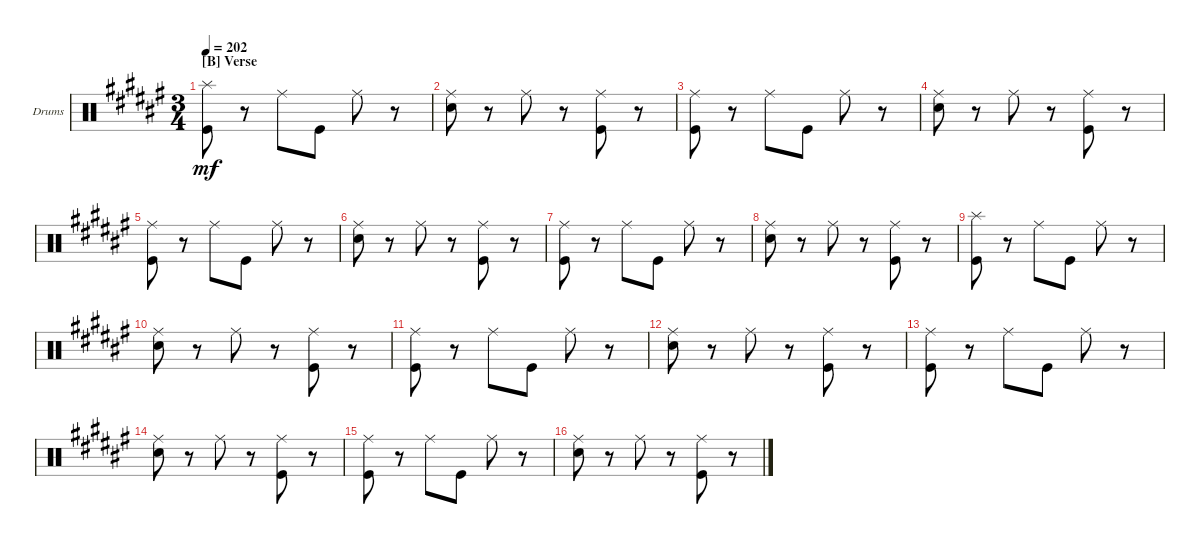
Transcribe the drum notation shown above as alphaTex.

\defaultSystemsLayout 4
\bracketExtendMode groupsimilarinstruments
\firstSystemTrackNameOrientation horizontal
\otherSystemsTrackNameOrientation horizontal
\track ("Drumkit" "Drums") {instrument percussion}
\staff {score}
\articulation defaults
\ts (3 4)
\section ("B" "Verse")
\tempo 202
\clef neutral
\ks f#
("Kick (hit)" "Splash (hit)").8{dy mf} r.8 "Ride (middle)".8 "Kick (hit)".8 "Ride (middle)".8 r.8 |
("Snare (hit) 2" "Ride (middle)").8 r.8 "Ride (middle)".8 r.8 ("Kick (hit)" "Ride (middle)").8 r.8 |
("Kick (hit)" "Ride (middle)").8 r.8 "Ride (middle)".8 "Kick (hit)".8 "Ride (middle)".8 r.8 |
("Snare (hit) 2" "Ride (middle)").8 r.8 "Ride (middle)".8 r.8 ("Kick (hit)" "Ride (middle)").8 r.8 |
("Kick (hit)" "Ride (middle)").8 r.8 "Ride (middle)".8 "Kick (hit)".8 "Ride (middle)".8 r.8 |
("Snare (hit) 2" "Ride (middle)").8 r.8 "Ride (middle)".8 r.8 ("Kick (hit)" "Ride (middle)").8 r.8 |
("Kick (hit)" "Ride (middle)").8 r.8 "Ride (middle)".8 "Kick (hit)".8 "Ride (middle)".8 r.8 |
("Snare (hit) 2" "Ride (middle)").8 r.8 "Ride (middle)".8 r.8 ("Kick (hit)" "Ride (middle)").8 r.8 |
("Kick (hit)" "Splash (hit)").8 r.8 "Ride (middle)".8 "Kick (hit)".8 "Ride (middle)".8 r.8 |
("Snare (hit) 2" "Ride (middle)").8 r.8 "Ride (middle)".8 r.8 ("Kick (hit)" "Ride (middle)").8 r.8 |
("Kick (hit)" "Ride (middle)").8 r.8 "Ride (middle)".8 "Kick (hit)".8 "Ride (middle)".8 r.8 |
("Snare (hit) 2" "Ride (middle)").8 r.8 "Ride (middle)".8 r.8 ("Kick (hit)" "Ride (middle)").8 r.8 |
("Kick (hit)" "Ride (middle)").8 r.8 "Ride (middle)".8 "Kick (hit)".8 "Ride (middle)".8 r.8 |
("Snare (hit) 2" "Ride (middle)").8 r.8 "Ride (middle)".8 r.8 ("Kick (hit)" "Ride (middle)").8 r.8 |
("Kick (hit)" "Ride (middle)").8 r.8 "Ride (middle)".8 "Kick (hit)".8 "Ride (middle)".8 r.8 |
("Snare (hit) 2" "Ride (middle)").8 r.8 "Ride (middle)".8 r.8 ("Kick (hit)" "Ride (middle)").8 r.8
